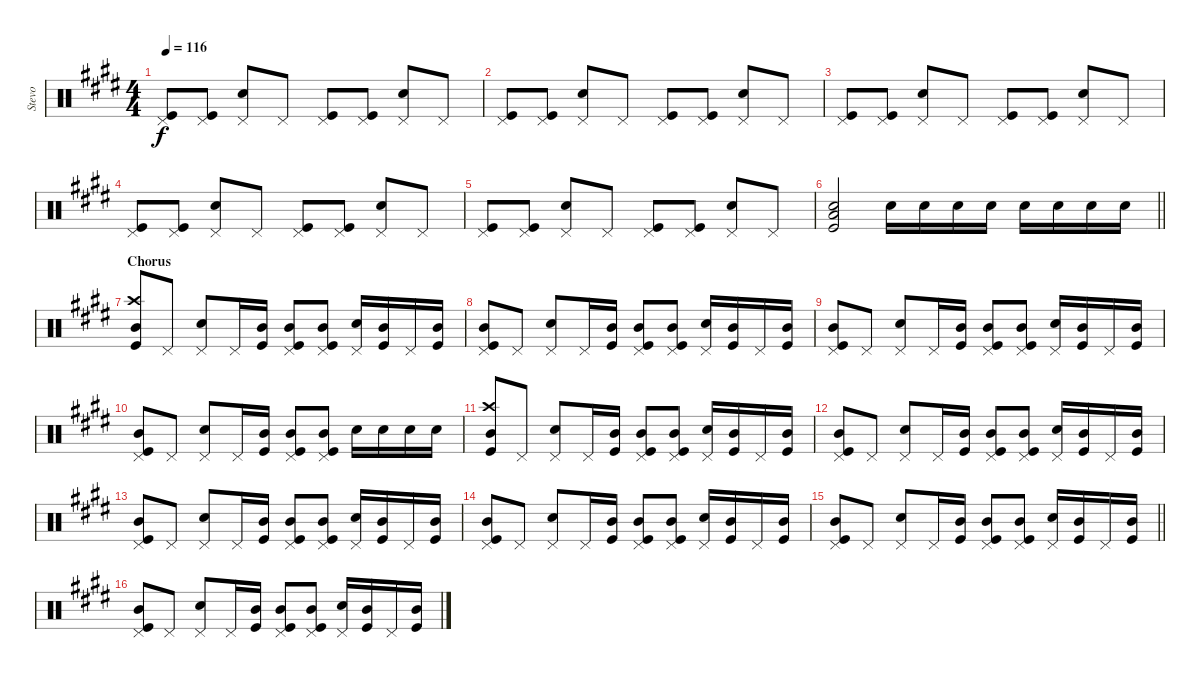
\track ("Stevo" "Stevo") {instrument percussion}
\staff {score}
\articulation defaults
\ts (4 4)
\tempo 116
\clef neutral
\ks e
("Kick (hit)" "Pedal Hi-Hat (hit)").8{dy f} ("Kick (hit)" "Pedal Hi-Hat (hit)").8 ("Electric Snare (hit)" "Pedal Hi-Hat (hit)").8 "Pedal Hi-Hat (hit)".8 ("Kick (hit)" "Pedal Hi-Hat (hit)").8 ("Kick (hit)" "Pedal Hi-Hat (hit)").8 ("Electric Snare (hit)" "Pedal Hi-Hat (hit)").8 "Pedal Hi-Hat (hit)".8 |
("Kick (hit)" "Pedal Hi-Hat (hit)").8 ("Kick (hit)" "Pedal Hi-Hat (hit)").8 ("Electric Snare (hit)" "Pedal Hi-Hat (hit)").8 "Pedal Hi-Hat (hit)".8 ("Kick (hit)" "Pedal Hi-Hat (hit)").8 ("Kick (hit)" "Pedal Hi-Hat (hit)").8 ("Electric Snare (hit)" "Pedal Hi-Hat (hit)").8 "Pedal Hi-Hat (hit)".8 |
("Kick (hit)" "Pedal Hi-Hat (hit)").8 ("Kick (hit)" "Pedal Hi-Hat (hit)").8 ("Electric Snare (hit)" "Pedal Hi-Hat (hit)").8 "Pedal Hi-Hat (hit)".8 ("Kick (hit)" "Pedal Hi-Hat (hit)").8 ("Kick (hit)" "Pedal Hi-Hat (hit)").8 ("Electric Snare (hit)" "Pedal Hi-Hat (hit)").8 "Pedal Hi-Hat (hit)".8 |
("Kick (hit)" "Pedal Hi-Hat (hit)").8 ("Kick (hit)" "Pedal Hi-Hat (hit)").8 ("Electric Snare (hit)" "Pedal Hi-Hat (hit)").8 "Pedal Hi-Hat (hit)".8 ("Kick (hit)" "Pedal Hi-Hat (hit)").8 ("Kick (hit)" "Pedal Hi-Hat (hit)").8 ("Electric Snare (hit)" "Pedal Hi-Hat (hit)").8 "Pedal Hi-Hat (hit)".8 |
("Kick (hit)" "Pedal Hi-Hat (hit)").8 ("Kick (hit)" "Pedal Hi-Hat (hit)").8 ("Electric Snare (hit)" "Pedal Hi-Hat (hit)").8 "Pedal Hi-Hat (hit)".8 ("Kick (hit)" "Pedal Hi-Hat (hit)").8 ("Kick (hit)" "Pedal Hi-Hat (hit)").8 ("Electric Snare (hit)" "Pedal Hi-Hat (hit)").8 "Pedal Hi-Hat (hit)".8 |
\barLineRight lightlight
("Kick (hit)" "Electric Snare (hit)" "Low Tom (hit)").2 "Electric Snare (hit)".16 "Electric Snare (hit)".16 "Electric Snare (hit)".16 "Electric Snare (hit)".16 "Electric Snare (hit)".16 "Electric Snare (hit)".16 "Electric Snare (hit)".16 "Electric Snare (hit)".16 |
\section ("" "Chorus")
("Kick (hit)" "Crash high (hit)" "Mid Tom (hit)").8 "Pedal Hi-Hat (hit)".8 ("Electric Snare (hit)" "Pedal Hi-Hat (hit)").8 "Pedal Hi-Hat (hit)".16 ("Kick (hit)" "Mid Tom (hit)").16 ("Kick (hit)" "Pedal Hi-Hat (hit)" "Mid Tom (hit)").8 ("Kick (hit)" "Pedal Hi-Hat (hit)" "Mid Tom (hit)").8 ("Electric Snare (hit)" "Pedal Hi-Hat (hit)").16 ("Kick (hit)" "Mid Tom (hit)").16 "Pedal Hi-Hat (hit)".16 ("Kick (hit)" "Mid Tom (hit)").16 |
("Kick (hit)" "Pedal Hi-Hat (hit)" "Mid Tom (hit)").8 "Pedal Hi-Hat (hit)".8 ("Electric Snare (hit)" "Pedal Hi-Hat (hit)").8 "Pedal Hi-Hat (hit)".16 ("Kick (hit)" "Mid Tom (hit)").16 ("Kick (hit)" "Pedal Hi-Hat (hit)" "Mid Tom (hit)").8 ("Kick (hit)" "Pedal Hi-Hat (hit)" "Mid Tom (hit)").8 ("Electric Snare (hit)" "Pedal Hi-Hat (hit)").16 ("Kick (hit)" "Mid Tom (hit)").16 "Pedal Hi-Hat (hit)".16 ("Kick (hit)" "Mid Tom (hit)").16 |
("Kick (hit)" "Pedal Hi-Hat (hit)" "Mid Tom (hit)").8 "Pedal Hi-Hat (hit)".8 ("Electric Snare (hit)" "Pedal Hi-Hat (hit)").8 "Pedal Hi-Hat (hit)".16 ("Kick (hit)" "Mid Tom (hit)").16 ("Kick (hit)" "Pedal Hi-Hat (hit)" "Mid Tom (hit)").8 ("Kick (hit)" "Pedal Hi-Hat (hit)" "Mid Tom (hit)").8 ("Electric Snare (hit)" "Pedal Hi-Hat (hit)").16 ("Kick (hit)" "Mid Tom (hit)").16 "Pedal Hi-Hat (hit)".16 ("Kick (hit)" "Mid Tom (hit)").16 |
("Kick (hit)" "Pedal Hi-Hat (hit)" "Mid Tom (hit)").8 "Pedal Hi-Hat (hit)".8 ("Electric Snare (hit)" "Pedal Hi-Hat (hit)").8 "Pedal Hi-Hat (hit)".16 ("Kick (hit)" "Mid Tom (hit)").16 ("Kick (hit)" "Pedal Hi-Hat (hit)" "Mid Tom (hit)").8 ("Kick (hit)" "Pedal Hi-Hat (hit)" "Mid Tom (hit)").8 "Electric Snare (hit)".16 "Electric Snare (hit)".16 "Electric Snare (hit)".16 "Electric Snare (hit)".16 |
("Kick (hit)" "Crash high (hit)" "Mid Tom (hit)").8 "Pedal Hi-Hat (hit)".8 ("Electric Snare (hit)" "Pedal Hi-Hat (hit)").8 "Pedal Hi-Hat (hit)".16 ("Kick (hit)" "Mid Tom (hit)").16 ("Kick (hit)" "Pedal Hi-Hat (hit)" "Mid Tom (hit)").8 ("Kick (hit)" "Pedal Hi-Hat (hit)" "Mid Tom (hit)").8 ("Electric Snare (hit)" "Pedal Hi-Hat (hit)").16 ("Kick (hit)" "Mid Tom (hit)").16 "Pedal Hi-Hat (hit)".16 ("Kick (hit)" "Mid Tom (hit)").16 |
("Kick (hit)" "Pedal Hi-Hat (hit)" "Mid Tom (hit)").8 "Pedal Hi-Hat (hit)".8 ("Electric Snare (hit)" "Pedal Hi-Hat (hit)").8 "Pedal Hi-Hat (hit)".16 ("Kick (hit)" "Mid Tom (hit)").16 ("Kick (hit)" "Pedal Hi-Hat (hit)" "Mid Tom (hit)").8 ("Kick (hit)" "Pedal Hi-Hat (hit)" "Mid Tom (hit)").8 ("Electric Snare (hit)" "Pedal Hi-Hat (hit)").16 ("Kick (hit)" "Mid Tom (hit)").16 "Pedal Hi-Hat (hit)".16 ("Kick (hit)" "Mid Tom (hit)").16 |
("Kick (hit)" "Pedal Hi-Hat (hit)" "Mid Tom (hit)").8 "Pedal Hi-Hat (hit)".8 ("Electric Snare (hit)" "Pedal Hi-Hat (hit)").8 "Pedal Hi-Hat (hit)".16 ("Kick (hit)" "Mid Tom (hit)").16 ("Kick (hit)" "Pedal Hi-Hat (hit)" "Mid Tom (hit)").8 ("Kick (hit)" "Pedal Hi-Hat (hit)" "Mid Tom (hit)").8 ("Electric Snare (hit)" "Pedal Hi-Hat (hit)").16 ("Kick (hit)" "Mid Tom (hit)").16 "Pedal Hi-Hat (hit)".16 ("Kick (hit)" "Mid Tom (hit)").16 |
("Kick (hit)" "Pedal Hi-Hat (hit)" "Mid Tom (hit)").8 "Pedal Hi-Hat (hit)".8 ("Electric Snare (hit)" "Pedal Hi-Hat (hit)").8 "Pedal Hi-Hat (hit)".16 ("Kick (hit)" "Mid Tom (hit)").16 ("Kick (hit)" "Pedal Hi-Hat (hit)" "Mid Tom (hit)").8 ("Kick (hit)" "Pedal Hi-Hat (hit)" "Mid Tom (hit)").8 ("Electric Snare (hit)" "Pedal Hi-Hat (hit)").16 ("Kick (hit)" "Mid Tom (hit)").16 "Pedal Hi-Hat (hit)".16 ("Kick (hit)" "Mid Tom (hit)").16 |
\barLineRight lightlight
("Kick (hit)" "Pedal Hi-Hat (hit)" "Mid Tom (hit)").8 "Pedal Hi-Hat (hit)".8 ("Electric Snare (hit)" "Pedal Hi-Hat (hit)").8 "Pedal Hi-Hat (hit)".16 ("Kick (hit)" "Mid Tom (hit)").16 ("Kick (hit)" "Pedal Hi-Hat (hit)" "Mid Tom (hit)").8 ("Kick (hit)" "Pedal Hi-Hat (hit)" "Mid Tom (hit)").8 ("Electric Snare (hit)" "Pedal Hi-Hat (hit)").16 ("Kick (hit)" "Mid Tom (hit)").16 "Pedal Hi-Hat (hit)".16 ("Kick (hit)" "Mid Tom (hit)").16 |
("Kick (hit)" "Pedal Hi-Hat (hit)" "Mid Tom (hit)").8 "Pedal Hi-Hat (hit)".8 ("Electric Snare (hit)" "Pedal Hi-Hat (hit)").8 "Pedal Hi-Hat (hit)".16 ("Kick (hit)" "Mid Tom (hit)").16 ("Kick (hit)" "Pedal Hi-Hat (hit)" "Mid Tom (hit)").8 ("Kick (hit)" "Pedal Hi-Hat (hit)" "Mid Tom (hit)").8 ("Electric Snare (hit)" "Pedal Hi-Hat (hit)").16 ("Kick (hit)" "Mid Tom (hit)").16 "Pedal Hi-Hat (hit)".16 ("Kick (hit)" "Mid Tom (hit)").16
